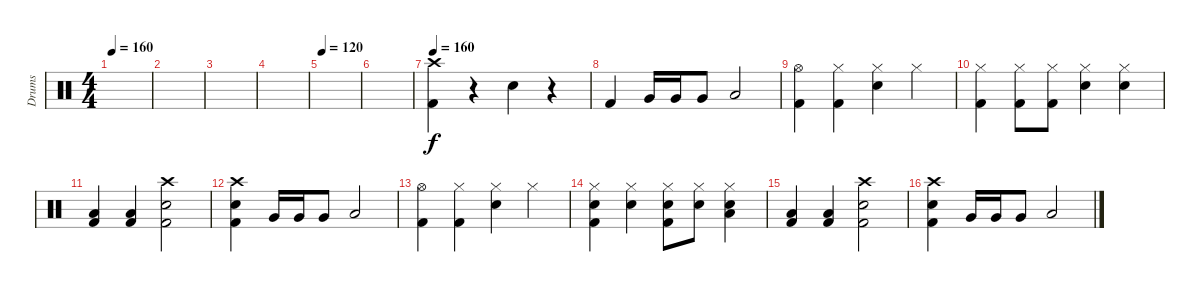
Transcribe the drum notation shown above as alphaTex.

\track ("Drums" "Drums") {instrument percussion}
\staff {score}
\articulation defaults
\ts (4 4)
\tempo 160
\clef neutral
\ks c
|
|
|
|
\tempo 120
|
|
\tempo 160
("Crash high (hit)" "Kick (hit) 2").4 r.4 "Snare (hit) 2".4 r.4 |
"Kick (hit) 2".4 "Very Low Tom (hit)".16 "Very Low Tom (hit)".16 "Very Low Tom (hit)".8 "Low Floor Tom (hit)".2 |
("Hi-Hat (open)" "Kick (hit) 2").4 ("Hi-Hat (closed)" "Kick (hit) 2").4 ("Hi-Hat (closed)" "Snare (hit) 2").4 "Hi-Hat (closed)".4 |
("Hi-Hat (closed)" "Kick (hit) 2").4 ("Hi-Hat (closed)" "Kick (hit) 2").8 ("Hi-Hat (closed)" "Kick (hit) 2").8 ("Hi-Hat (closed)" "Snare (hit) 2").4 ("Hi-Hat (closed)" "Snare (hit) 2").4 |
("Low Floor Tom (hit)" "Kick (hit) 2").4 ("Low Floor Tom (hit)" "Kick (hit) 2").4 ("Kick (hit) 2" "Crash high (hit)" "Snare (hit) 2").2 |
("Kick (hit) 2" "Crash high (hit)" "Snare (hit) 2").4 "Very Low Tom (hit)".16 "Very Low Tom (hit)".16 "Very Low Tom (hit)".8 "Low Floor Tom (hit)".2 |
("Hi-Hat (open)" "Kick (hit) 2").4 ("Hi-Hat (closed)" "Kick (hit) 2").4 ("Hi-Hat (closed)" "Snare (hit) 2").4 "Hi-Hat (closed)".4 |
("Hi-Hat (closed)" "Snare (hit) 2" "Kick (hit) 2").4 ("Hi-Hat (closed)" "Snare (hit) 2").4 ("Hi-Hat (closed)" "Snare (hit) 2" "Kick (hit) 2").8 ("Hi-Hat (closed)" "Snare (hit) 2").8 ("Hi-Hat (closed)" "Snare (hit) 2" "Low Floor Tom (hit)").4 |
("Low Floor Tom (hit)" "Kick (hit) 2").4 ("Low Floor Tom (hit)" "Kick (hit) 2").4 ("Kick (hit) 2" "Crash high (hit)" "Snare (hit) 2").2 |
("Kick (hit) 2" "Crash high (hit)" "Snare (hit) 2").4 "Very Low Tom (hit)".16 "Very Low Tom (hit)".16 "Very Low Tom (hit)".8 "Low Floor Tom (hit)".2
